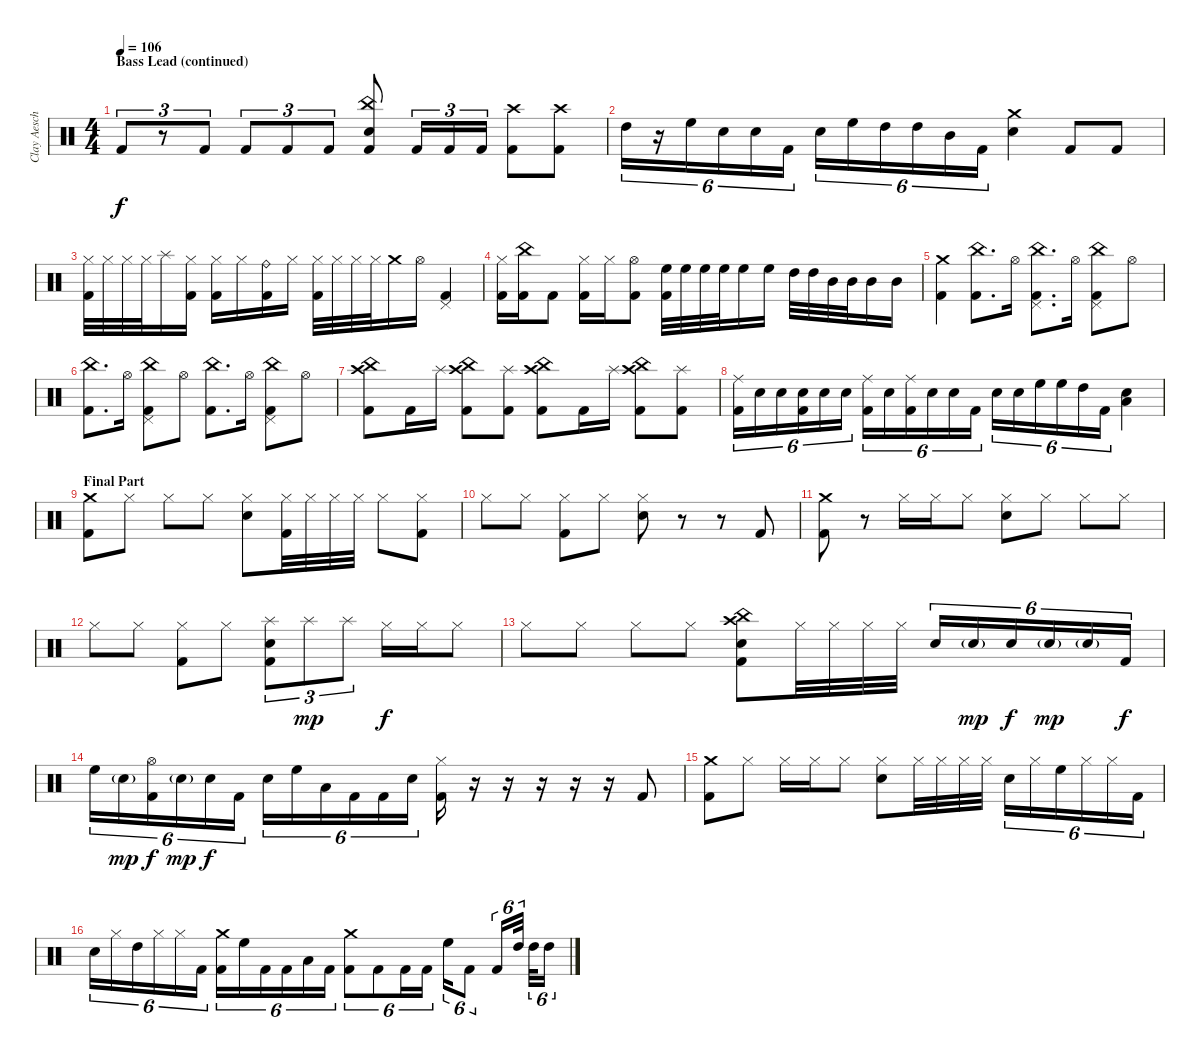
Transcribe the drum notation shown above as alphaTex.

\track ("Clay Aeschliman" "Clay Aesch") {instrument percussion}
\staff {score}
\articulation defaults
\ts (4 4)
\section ("" "Bass Lead (continued)")
\tempo 106
\clef neutral
\ks c "Kick (hit) 2".8{tu (3 2) dy f}
r.8{tu (3 2)} "Kick (hit) 2".8{tu (3 2)} "Kick (hit) 2".8{tu (3 2)} "Kick (hit) 2".8{tu (3 2)} "Kick (hit) 2".8{tu (3 2)} ("China (hit)" "Snare (hit) 2" "Kick (hit) 2").8 "Kick (hit) 2".16{tu (3 2)} "Kick (hit) 2".16{tu (3 2)} "Kick (hit) 2".16{tu (3 2)} ("Crash high (hit)" "Kick (hit) 2").8 ("Crash high (hit)" "Kick (hit) 2").8 |
"High Tom (hit)".16{tu (6 4)} r.16{tu (6 4)} "High Floor Tom (hit)".16{tu (6 4)} "Snare (hit) 2".16{tu (6 4)} "Snare (hit) 2".16{tu (6 4)} "Kick (hit) 2".16{tu (6 4)} "Snare (hit) 2".16{tu (6 4)} "High Floor Tom (hit)".16{tu (6 4)} "High Tom (hit)".16{tu (6 4)} "High Tom (hit)".16{tu (6 4)} "Mid Tom (hit)".16{tu (6 4)} "Kick (hit) 2".16{tu (6 4)} ("Crash medium (hit)" "Snare (hit) 2").4 "Kick (hit) 2".8 "Kick (hit) 2".8 |
("Hi-Hat (closed)" "Kick (hit) 2").32 "Hi-Hat (closed)".32 "Hi-Hat (closed)".32 "Hi-Hat (closed)".32 "Splash (hit)".16 ("Hi-Hat (closed)" "Kick (hit) 2").16 ("Hi-Hat (closed)" "Kick (hit) 2").16 "Hi-Hat (closed)".16 ("Ride (bell)" "Kick (hit) 2").16 "Hi-Hat (closed)".16 ("Hi-Hat (closed)" "Kick (hit) 2").32 "Hi-Hat (closed)".32 "Hi-Hat (closed)".32 "Hi-Hat (closed)".32 "Crash medium (hit)".16 "Hi-Hat (open)".16 ("Pedal Hi-Hat (hit)" "Kick (hit) 2").4 |
("Hi-Hat (closed)" "Kick (hit) 2").16 ("China (hit)" "Kick (hit) 2").16 "Kick (hit) 2".8 ("Hi-Hat (closed)" "Kick (hit) 2").16 "Hi-Hat (closed)".16 ("Hi-Hat (open)" "Kick (hit) 2").8 ("High Floor Tom (hit)" "Kick (hit) 2").32 "High Floor Tom (hit)".32 "High Floor Tom (hit)".32 "High Floor Tom (hit)".32 "High Floor Tom (hit)".16 "High Floor Tom (hit)".16 "High Tom (hit)".32 "High Tom (hit)".32 "Mid Tom (hit)".32 "Mid Tom (hit)".32 "Mid Tom (hit)".16 "Mid Tom (hit)".16 |
("Crash medium (hit)" "Kick (hit) 2").4 ("China (hit)" "Kick (hit) 2").8{d} "Hi-Hat (open)".16 ("China (hit)" "Pedal Hi-Hat (hit)" "Kick (hit) 2").8{d} "Hi-Hat (open)".16 ("China (hit)" "Pedal Hi-Hat (hit)" "Kick (hit) 2").8 "Hi-Hat (open)".8 |
("China (hit)" "Kick (hit) 2").8{d} "Hi-Hat (open)".16 ("China (hit)" "Pedal Hi-Hat (hit)" "Kick (hit) 2").8 "Hi-Hat (open)".8 ("China (hit)" "Kick (hit) 2").8{d} "Hi-Hat (open)".16 ("China (hit)" "Pedal Hi-Hat (hit)" "Kick (hit) 2").8 "Hi-Hat (open)".8 |
("China (hit)" "Crash high (hit)" "Kick (hit) 2").8 "Kick (hit) 2".16 "Splash (hit)".16 ("China (hit)" "Crash high (hit)" "Kick (hit) 2").8 ("Splash (hit)" "Kick (hit) 2").8 ("China (hit)" "Crash high (hit)" "Kick (hit) 2").8 "Kick (hit) 2".16 "Splash (hit)".16 ("China (hit)" "Crash high (hit)" "Kick (hit) 2").8 ("Splash (hit)" "Kick (hit) 2").8 |
("Ride (middle)" "Kick (hit) 2").16{tu (6 4)} "Snare (hit) 2".16{tu (6 4)} "Snare (hit) 2".16{tu (6 4)} ("Snare (hit) 2" "Kick (hit) 2").16{tu (6 4)} "Snare (hit) 2".16{tu (6 4)} "Snare (hit) 2".16{tu (6 4)} ("Ride (middle)" "Kick (hit) 2").16{tu (6 4)} "Snare (hit) 2".16{tu (6 4)} ("Ride (middle)" "Kick (hit) 2").16{tu (6 4)} "Snare (hit) 2".16{tu (6 4)} "Snare (hit) 2".16{tu (6 4)} "Kick (hit) 2".16{tu (6 4)} "Snare (hit) 2".16{tu (6 4)} "Snare (hit) 2".16{tu (6 4)} "High Floor Tom (hit)".16{tu (6 4)} "High Floor Tom (hit)".16{tu (6 4)} "High Tom (hit)".16{tu (6 4)} "Kick (hit) 2".16{tu (6 4)} ("Snare (hit) 2" "Low Tom (hit)").4 |
\section ("" "Final Part")
("Crash medium (hit)" "Kick (hit) 2").8 "Hi-Hat (closed)".8 "Hi-Hat (closed)".8 "Hi-Hat (closed)".8 ("Hi-Hat (closed)" "Snare (hit) 2").8 ("Hi-Hat (closed)" "Kick (hit) 2").32 "Hi-Hat (closed)".32 "Hi-Hat (closed)".32 "Hi-Hat (closed)".32 "Hi-Hat (closed)".8 ("Hi-Hat (closed)" "Kick (hit) 2").8 |
"Hi-Hat (closed)".8 "Hi-Hat (closed)".8 ("Hi-Hat (closed)" "Kick (hit) 2").8 "Hi-Hat (closed)".8 ("Hi-Hat (closed)" "Snare (hit) 2").8 r.8 r.8 "Kick (hit) 2".8 |
("Crash medium (hit)" "Kick (hit) 2").8 r.8 "Hi-Hat (closed)".16 "Hi-Hat (closed)".16 "Hi-Hat (closed)".8 ("Hi-Hat (closed)" "Snare (hit) 2").8 "Hi-Hat (closed)".8 "Hi-Hat (closed)".8 "Hi-Hat (closed)".8 |
"Hi-Hat (closed)".8 "Hi-Hat (closed)".8 ("Hi-Hat (closed)" "Kick (hit) 2").8 "Hi-Hat (closed)".8 ("Splash (hit)" "Snare (hit) 2" "Kick (hit) 2").8{tu (3 2)} "Splash (hit)".8{tu (3 2) dy mp} "Splash (hit)".8{tu (3 2)} "Hi-Hat (closed)".16{dy f} "Hi-Hat (closed)".16 "Hi-Hat (closed)".8 |
"Hi-Hat (closed)".8 "Hi-Hat (closed)".8 "Hi-Hat (closed)".8 "Hi-Hat (closed)".8 ("Crash high (hit)" "China (hit)" "Snare (hit) 2" "Kick (hit) 2").8 "Hi-Hat (closed)".32 "Hi-Hat (closed)".32 "Hi-Hat (closed)".32 "Hi-Hat (closed)".32 "Snare (hit) 2".16{tu (6 4)} "Snare (hit) 2"{g}.16{tu (6 4) dy mp} "Snare (hit) 2".16{tu (6 4) dy f} "Snare (hit) 2"{g}.16{tu (6 4) dy mp} "Snare (hit) 2"{g}.16{tu (6 4)} "Kick (hit) 2".16{tu (6 4) dy f} |
"High Floor Tom (hit)".16{tu (6 4)} "Snare (hit) 2"{g}.16{tu (6 4) dy mp} ("Hi-Hat (open)" "Kick (hit) 2").16{tu (6 4) dy f} "Snare (hit) 2"{g}.16{tu (6 4) dy mp} "Snare (hit) 2".16{tu (6 4) dy f} "Kick (hit) 2".16{tu (6 4)} "Snare (hit) 2".16{tu (6 4)} "High Floor Tom (hit)".16{tu (6 4)} "Low Tom (hit)".16{tu (6 4)} "Kick (hit) 2".16{tu (6 4)} "Kick (hit) 2".16{tu (6 4)} "Snare (hit) 2".16{tu (6 4)} ("Hi-Hat (closed)" "Kick (hit) 2").16 r.16 r.16 r.16 r.16 r.16 "Kick (hit) 2".8 |
("Crash medium (hit)" "Kick (hit) 2").8 "Hi-Hat (closed)".8 "Hi-Hat (closed)".16 "Hi-Hat (closed)".16 "Hi-Hat (closed)".8 ("Hi-Hat (closed)" "Snare (hit) 2").8 "Hi-Hat (closed)".32 "Hi-Hat (closed)".32 "Hi-Hat (closed)".32 "Hi-Hat (closed)".32 "Snare (hit) 2".16{tu (6 4)} "Hi-Hat (closed)".16{tu (6 4)} "High Floor Tom (hit)".16{tu (6 4)} "Hi-Hat (closed)".16{tu (6 4)} "Hi-Hat (closed)".16{tu (6 4)} "Kick (hit) 2".16{tu (6 4)} |
"Snare (hit) 2".16{tu (6 4)} "Hi-Hat (closed)".16{tu (6 4)} "High Tom (hit)".16{tu (6 4)} "Hi-Hat (closed)".16{tu (6 4)} "Hi-Hat (closed)".16{tu (6 4)} "Kick (hit) 2".16{tu (6 4)} ("Crash medium (hit)" "Kick (hit) 2").16{tu (6 4)} "High Floor Tom (hit)".16{tu (6 4)} "Kick (hit) 2".16{tu (6 4)} "Kick (hit) 2".16{tu (6 4)} "Low Tom (hit)".16{tu (6 4)} "Kick (hit) 2".16{tu (6 4)} ("Crash medium (hit)" "Kick (hit) 2").8{tu (6 4)} "Kick (hit) 2".8{tu (6 4)} "Kick (hit) 2".16{tu (6 4)} "Kick (hit) 2".16{tu (6 4)} "High Floor Tom (hit)".16{tu (6 4)} "Kick (hit) 2".8{tu (6 4)} "Kick (hit) 2".16{tu (6 4)} "High Tom (hit)".32{tu (6 4)} "High Tom (hit)".32{tu (6 4)} "High Tom (hit)".16{tu (6 4)}
